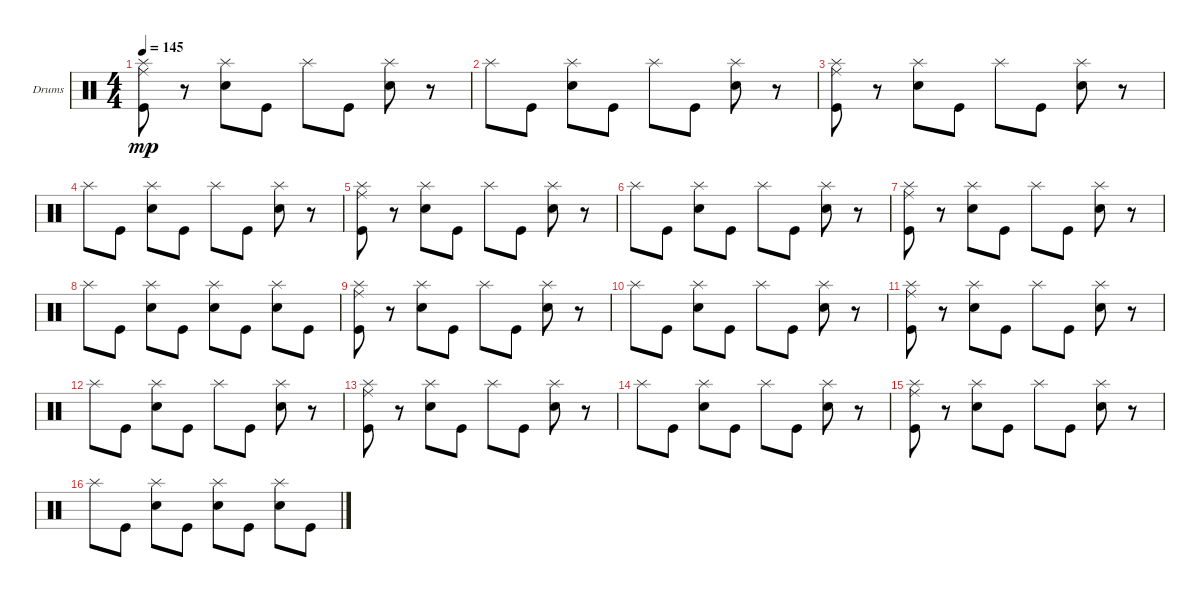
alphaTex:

\defaultSystemsLayout 4
\bracketExtendMode groupsimilarinstruments
\firstSystemTrackNameOrientation horizontal
\otherSystemsTrackNameOrientation horizontal
\track ("Drumkit" "Drums") {instrument percussion}
\staff {score}
\articulation defaults
\ts (4 4)
\tempo 145
\clef neutral
\ks c
("Kick (hit)" "Ride (middle)" "Splash (hit)").8{dy mp} r.8 ("Snare (hit) 2" "Splash (hit)").8 "Kick (hit)".8 "Splash (hit)".8 "Kick (hit)".8 ("Snare (hit) 2" "Splash (hit)").8 r.8 |
"Splash (hit)".8 "Kick (hit)".8 ("Snare (hit) 2" "Splash (hit)").8 "Kick (hit)".8 "Splash (hit)".8 "Kick (hit)".8 ("Snare (hit) 2" "Splash (hit)").8 r.8 |
("Kick (hit)" "Ride (middle)" "Splash (hit)").8 r.8 ("Snare (hit) 2" "Splash (hit)").8 "Kick (hit)".8 "Splash (hit)".8 "Kick (hit)".8 ("Snare (hit) 2" "Splash (hit)").8 r.8 |
"Splash (hit)".8 "Kick (hit)".8 ("Snare (hit) 2" "Splash (hit)").8 "Kick (hit)".8 "Splash (hit)".8 "Kick (hit)".8 ("Snare (hit) 2" "Splash (hit)").8 r.8 |
("Kick (hit)" "Ride (middle)" "Splash (hit)").8 r.8 ("Snare (hit) 2" "Splash (hit)").8 "Kick (hit)".8 "Splash (hit)".8 "Kick (hit)".8 ("Snare (hit) 2" "Splash (hit)").8 r.8 |
"Splash (hit)".8 "Kick (hit)".8 ("Snare (hit) 2" "Splash (hit)").8 "Kick (hit)".8 "Splash (hit)".8 "Kick (hit)".8 ("Snare (hit) 2" "Splash (hit)").8 r.8 |
("Kick (hit)" "Ride (middle)" "Splash (hit)").8 r.8 ("Snare (hit) 2" "Splash (hit)").8 "Kick (hit)".8 "Splash (hit)".8 "Kick (hit)".8 ("Snare (hit) 2" "Splash (hit)").8 r.8 |
"Splash (hit)".8 "Kick (hit)".8 ("Snare (hit) 2" "Splash (hit)").8 "Kick (hit)".8 ("Splash (hit)" "Snare (hit) 2").8 "Kick (hit)".8 ("Snare (hit) 2" "Splash (hit)").8 "Kick (hit)".8 |
("Kick (hit)" "Ride (middle)" "Splash (hit)").8 r.8 ("Snare (hit) 2" "Splash (hit)").8 "Kick (hit)".8 "Splash (hit)".8 "Kick (hit)".8 ("Snare (hit) 2" "Splash (hit)").8 r.8 |
"Splash (hit)".8 "Kick (hit)".8 ("Snare (hit) 2" "Splash (hit)").8 "Kick (hit)".8 "Splash (hit)".8 "Kick (hit)".8 ("Snare (hit) 2" "Splash (hit)").8 r.8 |
("Kick (hit)" "Ride (middle)" "Splash (hit)").8 r.8 ("Snare (hit) 2" "Splash (hit)").8 "Kick (hit)".8 "Splash (hit)".8 "Kick (hit)".8 ("Snare (hit) 2" "Splash (hit)").8 r.8 |
"Splash (hit)".8 "Kick (hit)".8 ("Snare (hit) 2" "Splash (hit)").8 "Kick (hit)".8 "Splash (hit)".8 "Kick (hit)".8 ("Snare (hit) 2" "Splash (hit)").8 r.8 |
("Kick (hit)" "Ride (middle)" "Splash (hit)").8 r.8 ("Snare (hit) 2" "Splash (hit)").8 "Kick (hit)".8 "Splash (hit)".8 "Kick (hit)".8 ("Snare (hit) 2" "Splash (hit)").8 r.8 |
"Splash (hit)".8 "Kick (hit)".8 ("Snare (hit) 2" "Splash (hit)").8 "Kick (hit)".8 "Splash (hit)".8 "Kick (hit)".8 ("Snare (hit) 2" "Splash (hit)").8 r.8 |
("Kick (hit)" "Ride (middle)" "Splash (hit)").8 r.8 ("Snare (hit) 2" "Splash (hit)").8 "Kick (hit)".8 "Splash (hit)".8 "Kick (hit)".8 ("Snare (hit) 2" "Splash (hit)").8 r.8 |
"Splash (hit)".8 "Kick (hit)".8 ("Snare (hit) 2" "Splash (hit)").8 "Kick (hit)".8 ("Splash (hit)" "Snare (hit) 2").8 "Kick (hit)".8 ("Snare (hit) 2" "Splash (hit)").8 "Kick (hit)".8
